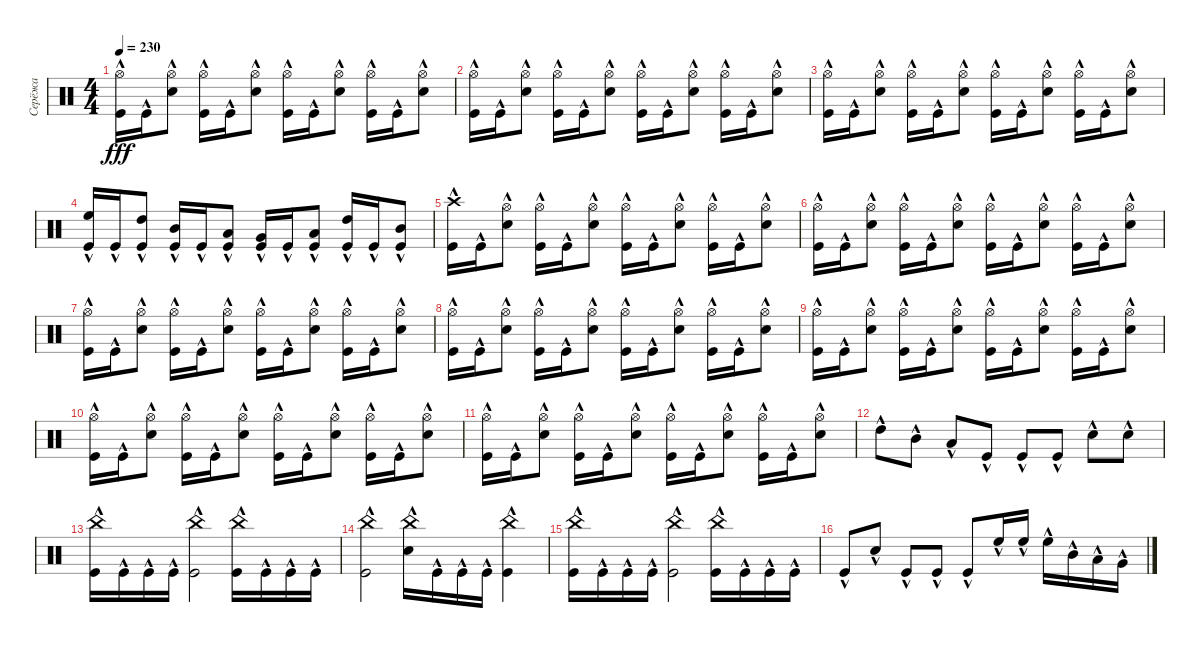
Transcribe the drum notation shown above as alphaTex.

\track ("Серёжа" "Серёжа") {instrument percussion}
\staff {score}
\articulation defaults
\ts (4 4)
\tempo 230
\clef neutral
\ks c
("Hi-Hat (open)" "Kick (hit)"{hac}).16{dy fff} "Kick (hit)"{hac}.16 ("Hi-Hat (open)" "Snare (hit) 2"{hac}).8 ("Hi-Hat (open)" "Kick (hit)"{hac}).16 "Kick (hit)"{hac}.16 ("Hi-Hat (open)" "Snare (hit) 2"{hac}).8 ("Hi-Hat (open)" "Kick (hit)"{hac}).16 "Kick (hit)"{hac}.16 ("Hi-Hat (open)" "Snare (hit) 2"{hac}).8 ("Hi-Hat (open)" "Kick (hit)"{hac}).16 "Kick (hit)"{hac}.16 ("Hi-Hat (open)" "Snare (hit) 2"{hac}).8 |
("Hi-Hat (open)" "Kick (hit)"{hac}).16 "Kick (hit)"{hac}.16 ("Hi-Hat (open)" "Snare (hit) 2"{hac}).8 ("Hi-Hat (open)" "Kick (hit)"{hac}).16 "Kick (hit)"{hac}.16 ("Hi-Hat (open)" "Snare (hit) 2"{hac}).8 ("Hi-Hat (open)" "Kick (hit)"{hac}).16 "Kick (hit)"{hac}.16 ("Hi-Hat (open)" "Snare (hit) 2"{hac}).8 ("Hi-Hat (open)" "Kick (hit)"{hac}).16 "Kick (hit)"{hac}.16 ("Hi-Hat (open)" "Snare (hit) 2"{hac}).8 |
("Hi-Hat (open)" "Kick (hit)"{hac}).16 "Kick (hit)"{hac}.16 ("Hi-Hat (open)" "Snare (hit) 2"{hac}).8 ("Hi-Hat (open)" "Kick (hit)"{hac}).16 "Kick (hit)"{hac}.16 ("Hi-Hat (open)" "Snare (hit) 2"{hac}).8 ("Hi-Hat (open)" "Kick (hit)"{hac}).16 "Kick (hit)"{hac}.16 ("Hi-Hat (open)" "Snare (hit) 2"{hac}).8 ("Hi-Hat (open)" "Kick (hit)"{hac}).16 "Kick (hit)"{hac}.16 ("Hi-Hat (open)" "Snare (hit) 2"{hac}).8 |
("High Floor Tom (hit)"{hac} "Kick (hit)"{hac}).16 "Kick (hit)"{hac}.16 ("High Tom (hit)"{hac} "Kick (hit)"{hac}).8 ("Mid Tom (hit)"{hac} "Kick (hit)"{hac}).16 "Kick (hit)"{hac}.16 ("Low Tom (hit)"{hac} "Kick (hit)"{hac}).8 ("Very Low Tom (hit)"{hac} "Kick (hit)"{hac}).16 "Kick (hit)"{hac}.16 ("Low Tom (hit)"{hac} "Kick (hit)"{hac}).8 ("High Tom (hit)"{hac} "Kick (hit)"{hac}).16 "Kick (hit)"{hac}.16 ("Mid Tom (hit)"{hac} "Kick (hit)"{hac}).8 |
("Crash high (hit)" "Kick (hit)"{hac}).16 "Kick (hit)"{hac}.16 ("Hi-Hat (open)" "Snare (hit) 2"{hac}).8 ("Hi-Hat (open)" "Kick (hit)"{hac}).16 "Kick (hit)"{hac}.16 ("Hi-Hat (open)" "Snare (hit) 2"{hac}).8 ("Hi-Hat (open)" "Kick (hit)"{hac}).16 "Kick (hit)"{hac}.16 ("Hi-Hat (open)" "Snare (hit) 2"{hac}).8 ("Hi-Hat (open)" "Kick (hit)"{hac}).16 "Kick (hit)"{hac}.16 ("Hi-Hat (open)" "Snare (hit) 2"{hac}).8 |
("Hi-Hat (open)" "Kick (hit)"{hac}).16 "Kick (hit)"{hac}.16 ("Hi-Hat (open)" "Snare (hit) 2"{hac}).8 ("Hi-Hat (open)" "Kick (hit)"{hac}).16 "Kick (hit)"{hac}.16 ("Hi-Hat (open)" "Snare (hit) 2"{hac}).8 ("Hi-Hat (open)" "Kick (hit)"{hac}).16 "Kick (hit)"{hac}.16 ("Hi-Hat (open)" "Snare (hit) 2"{hac}).8 ("Hi-Hat (open)" "Kick (hit)"{hac}).16 "Kick (hit)"{hac}.16 ("Hi-Hat (open)" "Snare (hit) 2"{hac}).8 |
("Hi-Hat (open)" "Kick (hit)"{hac}).16 "Kick (hit)"{hac}.16 ("Hi-Hat (open)" "Snare (hit) 2"{hac}).8 ("Hi-Hat (open)" "Kick (hit)"{hac}).16 "Kick (hit)"{hac}.16 ("Hi-Hat (open)" "Snare (hit) 2"{hac}).8 ("Hi-Hat (open)" "Kick (hit)"{hac}).16 "Kick (hit)"{hac}.16 ("Hi-Hat (open)" "Snare (hit) 2"{hac}).8 ("Hi-Hat (open)" "Kick (hit)"{hac}).16 "Kick (hit)"{hac}.16 ("Hi-Hat (open)" "Snare (hit) 2"{hac}).8 |
("Hi-Hat (open)" "Kick (hit)"{hac}).16 "Kick (hit)"{hac}.16 ("Hi-Hat (open)" "Snare (hit) 2"{hac}).8 ("Hi-Hat (open)" "Kick (hit)"{hac}).16 "Kick (hit)"{hac}.16 ("Hi-Hat (open)" "Snare (hit) 2"{hac}).8 ("Hi-Hat (open)" "Kick (hit)"{hac}).16 "Kick (hit)"{hac}.16 ("Hi-Hat (open)" "Snare (hit) 2"{hac}).8 ("Hi-Hat (open)" "Kick (hit)"{hac}).16 "Kick (hit)"{hac}.16 ("Hi-Hat (open)" "Snare (hit) 2"{hac}).8 |
("Hi-Hat (open)" "Kick (hit)"{hac}).16 "Kick (hit)"{hac}.16 ("Hi-Hat (open)" "Snare (hit) 2"{hac}).8 ("Hi-Hat (open)" "Kick (hit)"{hac}).16 "Kick (hit)"{hac}.16 ("Hi-Hat (open)" "Snare (hit) 2"{hac}).8 ("Hi-Hat (open)" "Kick (hit)"{hac}).16 "Kick (hit)"{hac}.16 ("Hi-Hat (open)" "Snare (hit) 2"{hac}).8 ("Hi-Hat (open)" "Kick (hit)"{hac}).16 "Kick (hit)"{hac}.16 ("Hi-Hat (open)" "Snare (hit) 2"{hac}).8 |
("Hi-Hat (open)" "Kick (hit)"{hac}).16 "Kick (hit)"{hac}.16 ("Hi-Hat (open)" "Snare (hit) 2"{hac}).8 ("Hi-Hat (open)" "Kick (hit)"{hac}).16 "Kick (hit)"{hac}.16 ("Hi-Hat (open)" "Snare (hit) 2"{hac}).8 ("Hi-Hat (open)" "Kick (hit)"{hac}).16 "Kick (hit)"{hac}.16 ("Hi-Hat (open)" "Snare (hit) 2"{hac}).8 ("Hi-Hat (open)" "Kick (hit)"{hac}).16 "Kick (hit)"{hac}.16 ("Hi-Hat (open)" "Snare (hit) 2"{hac}).8 |
("Hi-Hat (open)" "Kick (hit)"{hac}).16 "Kick (hit)"{hac}.16 ("Hi-Hat (open)" "Snare (hit) 2"{hac}).8 ("Hi-Hat (open)" "Kick (hit)"{hac}).16 "Kick (hit)"{hac}.16 ("Hi-Hat (open)" "Snare (hit) 2"{hac}).8 ("Hi-Hat (open)" "Kick (hit)"{hac}).16 "Kick (hit)"{hac}.16 ("Hi-Hat (open)" "Snare (hit) 2"{hac}).8 ("Hi-Hat (open)" "Kick (hit)"{hac}).16 "Kick (hit)"{hac}.16 ("Hi-Hat (open)" "Snare (hit) 2"{hac}).8 |
"High Tom (hit)"{hac}.8 "Mid Tom (hit)"{hac}.8 "Low Tom (hit)"{hac}.8 "Kick (hit)"{hac}.8 "Kick (hit)"{hac}.8 "Kick (hit)"{hac}.8 "Snare (hit) 2"{hac}.8 "Snare (hit) 2"{hac}.8 |
("China (hit)" "Kick (hit)"{hac}).16 "Kick (hit)"{hac}.16 "Kick (hit)"{hac}.16 "Kick (hit)"{hac}.16 ("China (hit)" "Kick (hit)"{hac}).2 ("China (hit)" "Kick (hit)"{hac}).16 "Kick (hit)"{hac}.16 "Kick (hit)"{hac}.16 "Kick (hit)"{hac}.16 |
("China (hit)" "Kick (hit)"{hac}).2 ("China (hit)" "Snare (hit) 2"{hac}).16 "Kick (hit)"{hac}.16 "Kick (hit)"{hac}.16 "Kick (hit)"{hac}.16 ("China (hit)" "Kick (hit)"{hac}).4 |
("China (hit)" "Kick (hit)"{hac}).16 "Kick (hit)"{hac}.16 "Kick (hit)"{hac}.16 "Kick (hit)"{hac}.16 ("China (hit)" "Kick (hit)"{hac}).2 ("China (hit)" "Kick (hit)"{hac}).16 "Kick (hit)"{hac}.16 "Kick (hit)"{hac}.16 "Kick (hit)"{hac}.16 |
"Kick (hit)"{hac}.8 "Snare (hit) 2"{hac}.8 "Kick (hit)"{hac}.8 "Kick (hit)"{hac}.8 "Kick (hit)"{hac}.8 "High Floor Tom (hit)"{hac}.16 "High Floor Tom (hit)"{hac}.16 "High Floor Tom (hit)"{hac}.16 "Mid Tom (hit)"{hac}.16 "Low Tom (hit)"{hac}.16 "Very Low Tom (hit)"{hac}.16
